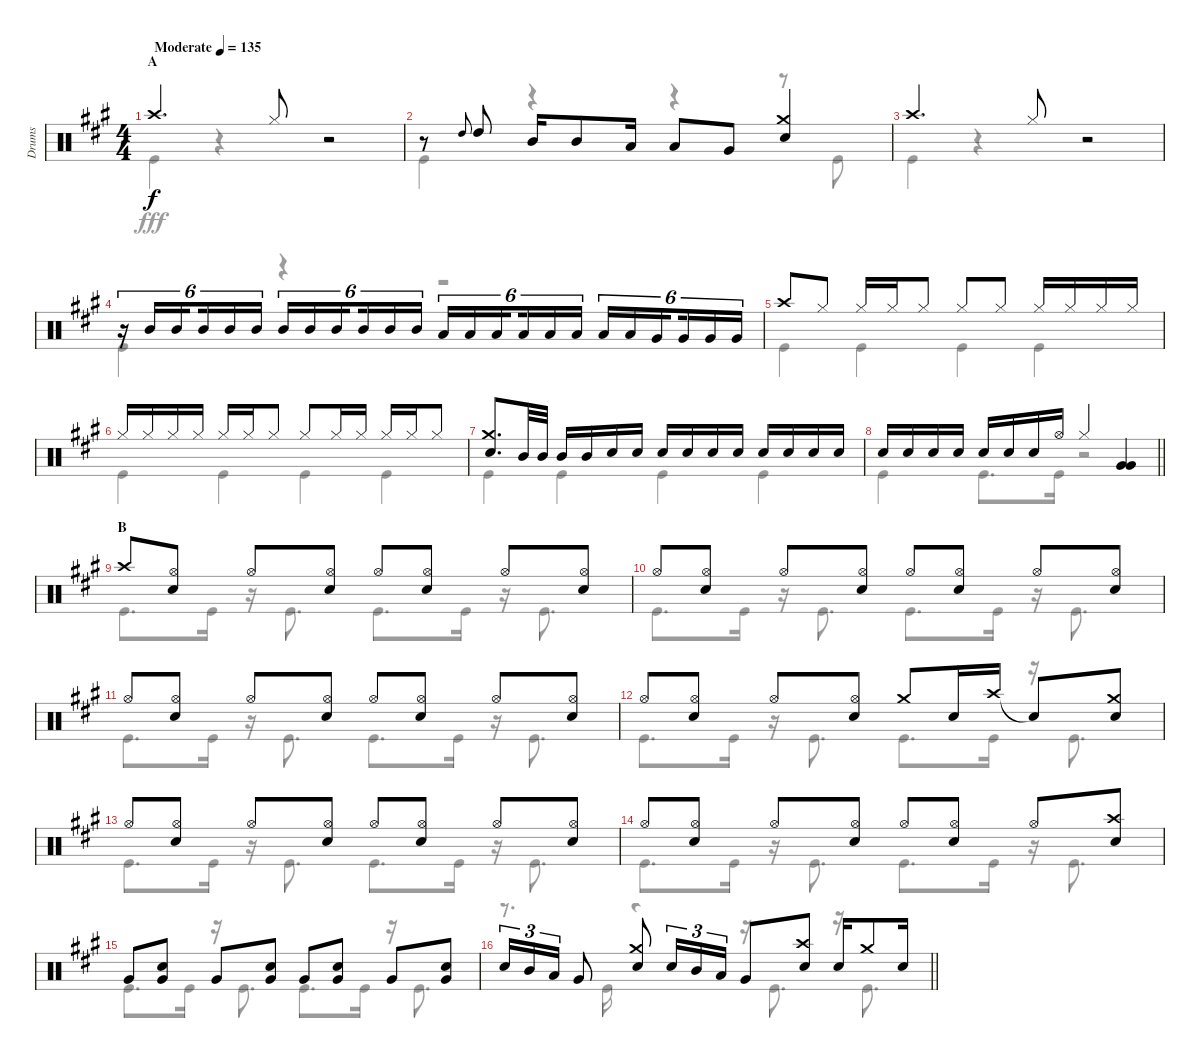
\track ("Drums" "Drums") {instrument percussion}
\staff {score}
\articulation defaults
\voice
\ts (4 4)
\section ("" "A")
\tempo (135 "Moderate")
\clef neutral
\ks a "Crash high (hit)".4{d dy f} "Hi-Hat (closed)".8
r.2 |
r.8 "High Tom (hit)".8{gr onbeat} "High Tom (hit)".8 "Mid Tom (hit)".16 "Mid Tom (hit)".8 "Low Tom (hit)".16 "Low Tom (hit)".8 "Very Low Tom (hit)".8 ("Crash medium (hit)" "Snare (hit) 2").4 |
"Crash high (hit)".4{d} "Hi-Hat (closed)".8 r.2 |
r.16{tu (6 4)} "Mid Tom (hit)".16{tu (6 4)} "Mid Tom (hit)".16{tu (6 4) beam splitsecondary} "Mid Tom (hit)".16{tu (6 4)} "Mid Tom (hit)".16{tu (6 4)} "Mid Tom (hit)".16{tu (6 4)} "Mid Tom (hit)".16{tu (6 4)} "Mid Tom (hit)".16{tu (6 4)} "Mid Tom (hit)".16{tu (6 4) beam splitsecondary} "Mid Tom (hit)".16{tu (6 4)} "Mid Tom (hit)".16{tu (6 4)} "Mid Tom (hit)".16{tu (6 4)} "Low Tom (hit)".16{tu (6 4)} "Low Tom (hit)".16{tu (6 4)} "Low Tom (hit)".16{tu (6 4) beam splitsecondary} "Low Tom (hit)".16{tu (6 4)} "Low Tom (hit)".16{tu (6 4)} "Low Tom (hit)".16{tu (6 4)} "Low Tom (hit)".16{tu (6 4)} "Low Tom (hit)".16{tu (6 4)} "Very Low Tom (hit)".16{tu (6 4) beam splitsecondary} "Very Low Tom (hit)".16{tu (6 4)} "Very Low Tom (hit)".16{tu (6 4)} "Very Low Tom (hit)".16{tu (6 4)} |
"Crash high (hit)".8 "Hi-Hat (closed)".8 "Hi-Hat (closed)".16 "Hi-Hat (closed)".16 "Hi-Hat (closed)".8 "Hi-Hat (closed)".8 "Hi-Hat (closed)".8 "Hi-Hat (closed)".16 "Hi-Hat (closed)".16 "Hi-Hat (closed)".16 "Hi-Hat (closed)".16 |
"Hi-Hat (closed)".16 "Hi-Hat (closed)".16 "Hi-Hat (closed)".16 "Hi-Hat (closed)".16 "Hi-Hat (closed)".16 "Hi-Hat (closed)".16 "Hi-Hat (closed)".8 "Hi-Hat (closed)".8 "Hi-Hat (closed)".16 "Hi-Hat (closed)".16 "Hi-Hat (closed)".16 "Hi-Hat (closed)".16 "Hi-Hat (closed)".8 |
("Crash medium (hit)" "Snare (hit) 2").8{d} "Mid Tom (hit)".32 "Mid Tom (hit)".32 "Mid Tom (hit)".16 "Mid Tom (hit)".16 "Snare (hit) 2".16 "Snare (hit) 2".16 "Snare (hit) 2".16 "Snare (hit) 2".16 "Snare (hit) 2".16 "Snare (hit) 2".16 "Snare (hit) 2".16 "Snare (hit) 2".16 "Snare (hit) 2".16 "Snare (hit) 2".16 |
\barLineRight lightlight "Snare (hit) 2".16 "Snare (hit) 2".16 "Snare (hit) 2".16 "Snare (hit) 2".16 "Snare (hit) 2".16 "Snare (hit) 2".16 "Snare (hit) 2".16 "Hi-Hat (open)".16 "Hi-Hat (closed)".4
("Very Low Tom (hit)" "Very Low Tom (hit)").4 |
\section ("" "B")
"Crash high (hit)".8 ("Hi-Hat (open)" "Snare (hit) 2").8 "Hi-Hat (open)".8 ("Hi-Hat (open)" "Snare (hit) 2").8 "Hi-Hat (open)".8 ("Hi-Hat (open)" "Snare (hit) 2").8 "Hi-Hat (open)".8 ("Hi-Hat (open)" "Snare (hit) 2").8 |
"Hi-Hat (open)".8 ("Hi-Hat (open)" "Snare (hit) 2").8 "Hi-Hat (open)".8 ("Hi-Hat (open)" "Snare (hit) 2").8 "Hi-Hat (open)".8 ("Hi-Hat (open)" "Snare (hit) 2").8 "Hi-Hat (open)".8 ("Hi-Hat (open)" "Snare (hit) 2").8 |
"Hi-Hat (open)".8 ("Hi-Hat (open)" "Snare (hit) 2").8 "Hi-Hat (open)".8 ("Hi-Hat (open)" "Snare (hit) 2").8 "Hi-Hat (open)".8 ("Hi-Hat (open)" "Snare (hit) 2").8 "Hi-Hat (open)".8 ("Hi-Hat (open)" "Snare (hit) 2").8 |
"Hi-Hat (open)".8 ("Hi-Hat (open)" "Snare (hit) 2").8 "Hi-Hat (open)".8 ("Hi-Hat (open)" "Snare (hit) 2").8 "Crash medium (hit)".8 "Snare (hit) 2".16 "Crash high (hit)".16 "Snare (hit)"{t}.8 ("Crash medium (hit)" "Snare (hit) 2").8 |
"Hi-Hat (open)".8 ("Hi-Hat (open)" "Snare (hit) 2").8 "Hi-Hat (open)".8 ("Hi-Hat (open)" "Snare (hit) 2").8 "Hi-Hat (open)".8 ("Hi-Hat (open)" "Snare (hit) 2").8 "Hi-Hat (open)".8 ("Hi-Hat (open)" "Snare (hit) 2").8 |
"Hi-Hat (open)".8 ("Hi-Hat (open)" "Snare (hit) 2").8 "Hi-Hat (open)".8 ("Hi-Hat (open)" "Snare (hit) 2").8 "Hi-Hat (open)".8 ("Hi-Hat (open)" "Snare (hit) 2").8 "Hi-Hat (open)".8 ("Crash high (hit)" "Snare (hit) 2").8 |
"Very Low Tom (hit)".8 ("Snare (hit) 2" "Very Low Tom (hit)").8 "Very Low Tom (hit)".8 ("Snare (hit) 2" "Very Low Tom (hit)").8 "Very Low Tom (hit)".8 ("Snare (hit) 2" "Very Low Tom (hit)").8 "Very Low Tom (hit)".8 ("Snare (hit) 2" "Very Low Tom (hit)").8 |
\barLineRight lightlight "Snare (hit) 2".16{tu (3 2)} "Mid Tom (hit)".16{tu (3 2)} "Low Tom (hit)".16{tu (3 2)} "Very Low Tom (hit)".8
("Crash medium (hit)" "Snare (hit) 2").8 "Snare (hit) 2".16{tu (3 2)} "Mid Tom (hit)".16{tu (3 2)} "Low Tom (hit)".16{tu (3 2)} "Very Low Tom (hit)".8 ("Crash high (hit)" "Snare (hit) 2").8 "Snare (hit) 2".16 "Crash medium (hit)".8 "Snare (hit) 2".16
\voice
\clef neutral
\ottava regular
\simile none
\ks a "Kick (hit)".4{dy fff}
r.4 r.2 |
"Kick (hit)".4 r.4 r.4 r.8 "Kick (hit)".8 |
"Kick (hit)".4 r.4 r.2 |
"Kick (hit)".4 r.4 r.2 |
"Kick (hit)".4 "Kick (hit)".4 "Kick (hit)".4 "Kick (hit)".4 |
"Kick (hit)".4 "Kick (hit)".4 "Kick (hit)".4 "Kick (hit)".4 |
"Kick (hit)".4 "Kick (hit)".4 "Kick (hit)".4 "Kick (hit)".4 |
\barLineRight lightlight "Kick (hit)".4 "Kick (hit)".8{d} "Kick (hit)".16
r.2 |
"Kick (hit)".8{d} "Kick (hit)".16 r.16 "Kick (hit)".8{d} "Kick (hit)".8{d} "Kick (hit)".16 r.16 "Kick (hit)".8{d} |
"Kick (hit)".8{d} "Kick (hit)".16 r.16 "Kick (hit)".8{d} "Kick (hit)".8{d} "Kick (hit)".16 r.16 "Kick (hit)".8{d} |
"Kick (hit)".8{d} "Kick (hit)".16 r.16 "Kick (hit)".8{d} "Kick (hit)".8{d} "Kick (hit)".16 r.16 "Kick (hit)".8{d} |
"Kick (hit)".8{d} "Kick (hit)".16 r.16 "Kick (hit)".8{d} "Kick (hit)".8{d} "Kick (hit)".16 r.16 "Kick (hit)".8{d} |
"Kick (hit)".8{d} "Kick (hit)".16 r.16 "Kick (hit)".8{d} "Kick (hit)".8{d} "Kick (hit)".16 r.16 "Kick (hit)".8{d} |
"Kick (hit)".8{d} "Kick (hit)".16 r.16 "Kick (hit)".8{d} "Kick (hit)".8{d} "Kick (hit)".16 r.16 "Kick (hit)".8{d} |
"Kick (hit)".8{d} "Kick (hit)".16 r.16 "Kick (hit)".8{d} "Kick (hit)".8{d} "Kick (hit)".16 r.16 "Kick (hit)".8{d} |
\barLineRight lightlight
r.8{d} "Kick (hit)".16 r.4 r.16 "Kick (hit)".8{d} r.16 "Kick (hit)".8{d}
